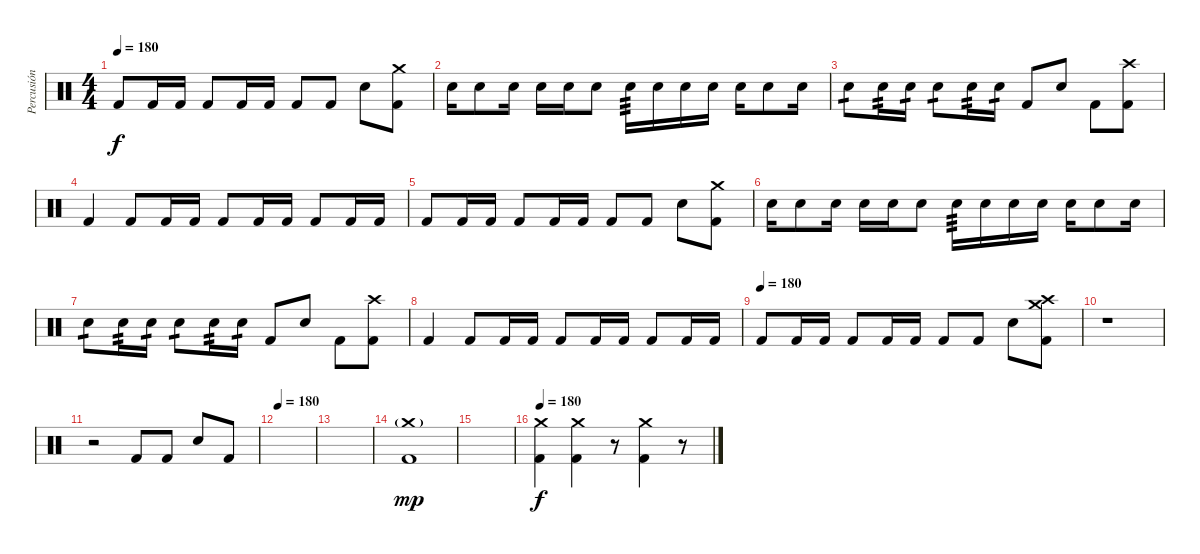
\track ("Percusión" "Percusión") {instrument percussion}
\staff {score}
\articulation defaults
\ts (4 4)
\tempo 180
\clef neutral
\ks c "Kick (hit) 2".8{dy f} "Kick (hit) 2".16 "Kick (hit) 2".16 "Kick (hit) 2".8 "Kick (hit) 2".16 "Kick (hit) 2".16 "Kick (hit) 2".8 "Kick (hit) 2".8 "Electric Snare (hit)".8
("Crash medium (hit)" "Kick (hit) 2").8 |
"Electric Snare (hit)".16 "Electric Snare (hit)".8 "Electric Snare (hit)".16 "Electric Snare (hit)".16 "Electric Snare (hit)".16 "Electric Snare (hit)".8 "Electric Snare (hit)".16{tp 3} "Electric Snare (hit)".16 "Electric Snare (hit)".16 "Electric Snare (hit)".16 "Electric Snare (hit)".16 "Electric Snare (hit)".8 "Electric Snare (hit)".16 |
"Electric Snare (hit)".8{tp 1} "Electric Snare (hit)".16{tp 2} "Electric Snare (hit)".16{tp 1} "Electric Snare (hit)".8{tp 1} "Electric Snare (hit)".16{tp 2} "Electric Snare (hit)".16{tp 1} "Kick (hit) 2".8 "Electric Snare (hit)".8 "Kick (hit) 2".8 ("Crash high (hit)" "Kick (hit) 2").8 |
"Kick (hit) 2".4 "Kick (hit) 2".8 "Kick (hit) 2".16 "Kick (hit) 2".16 "Kick (hit) 2".8 "Kick (hit) 2".16 "Kick (hit) 2".16 "Kick (hit) 2".8 "Kick (hit) 2".16 "Kick (hit) 2".16 |
"Kick (hit) 2".8 "Kick (hit) 2".16 "Kick (hit) 2".16 "Kick (hit) 2".8 "Kick (hit) 2".16 "Kick (hit) 2".16 "Kick (hit) 2".8 "Kick (hit) 2".8 "Electric Snare (hit)".8 ("Crash medium (hit)" "Kick (hit) 2").8 |
"Electric Snare (hit)".16 "Electric Snare (hit)".8 "Electric Snare (hit)".16 "Electric Snare (hit)".16 "Electric Snare (hit)".16 "Electric Snare (hit)".8 "Electric Snare (hit)".16{tp 3} "Electric Snare (hit)".16 "Electric Snare (hit)".16 "Electric Snare (hit)".16 "Electric Snare (hit)".16 "Electric Snare (hit)".8 "Electric Snare (hit)".16 |
"Electric Snare (hit)".8{tp 1} "Electric Snare (hit)".16{tp 2} "Electric Snare (hit)".16{tp 1} "Electric Snare (hit)".8{tp 1} "Electric Snare (hit)".16{tp 2} "Electric Snare (hit)".16{tp 1} "Kick (hit) 2".8 "Electric Snare (hit)".8 "Kick (hit) 2".8 ("Crash high (hit)" "Kick (hit) 2").8 |
"Kick (hit) 2".4 "Kick (hit) 2".8 "Kick (hit) 2".16 "Kick (hit) 2".16 "Kick (hit) 2".8 "Kick (hit) 2".16 "Kick (hit) 2".16 "Kick (hit) 2".8 "Kick (hit) 2".16 "Kick (hit) 2".16 |
\tempo (180)
"Kick (hit) 2".8 "Kick (hit) 2".16 "Kick (hit) 2".16 "Kick (hit) 2".8 "Kick (hit) 2".16 "Kick (hit) 2".16 "Kick (hit) 2".8 "Kick (hit) 2".8 "Electric Snare (hit)".8 ("Crash medium (hit)" "Crash high (hit)" "Kick (hit) 2").8 |
r.1 |
r.2 "Kick (hit) 2".8 "Kick (hit) 2".8 "Electric Snare (hit)".8 "Kick (hit) 2".8 |
\tempo 180
|
|
("Crash medium (hit)"{g} "Kick (hit) 2").1{dy mp} |
|
\tempo 180
("Crash medium (hit)" "Kick (hit) 2").4{dy f} ("Crash medium (hit)" "Kick (hit) 2").4 r.8 ("Crash medium (hit)" "Kick (hit) 2").4 r.8
